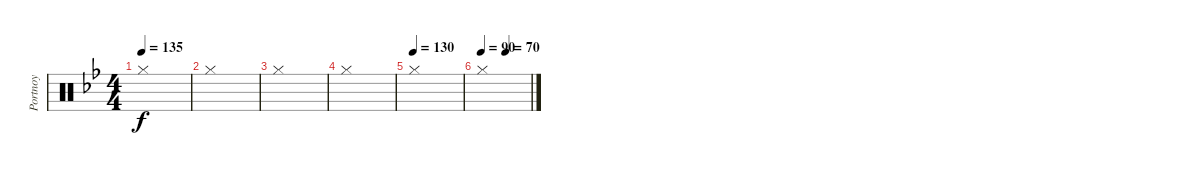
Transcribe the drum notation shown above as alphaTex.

\track ("Portnoy" "Portnoy") {instrument percussion}
\staff {score}
\articulation defaults
\ts (4 4)
\tempo 135
\clef neutral
\ks bb "Hi-Hat (closed)".1{dy f}
|
"Hi-Hat (closed)".1 |
"Hi-Hat (closed)".1 |
"Hi-Hat (closed)".1 |
\tempo (130)
"Hi-Hat (closed)".1 |
\tempo 90
\tempo (70 0.5)
"Hi-Hat (closed)".1
